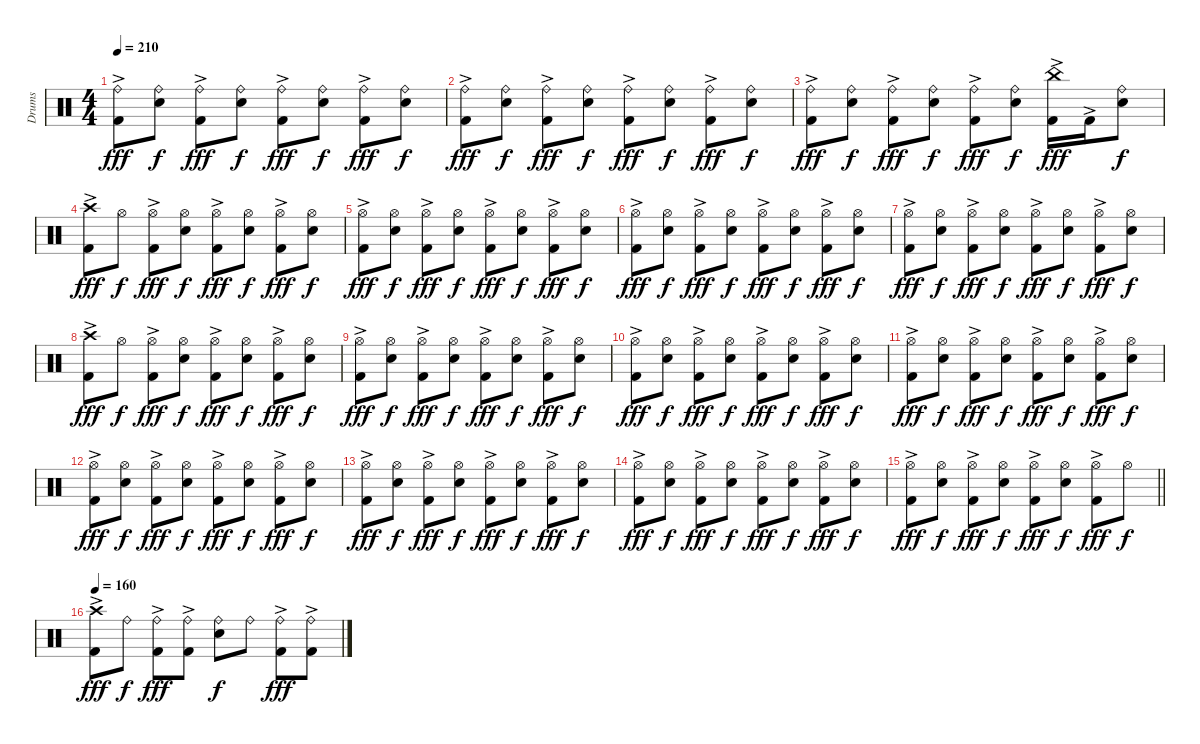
\track ("Drums" "Drums") {instrument percussion}
\staff {score}
\articulation defaults
\ts (4 4)
\tempo 210
\clef neutral
\ks c
("Ride (bell)" "Kick (hit) 2"{ac}).8{dy fff} ("Ride (bell)" "Snare (hit) 2").8{dy f} ("Ride (bell)" "Kick (hit) 2"{ac}).8{dy fff} ("Ride (bell)" "Snare (hit) 2").8{dy f} ("Ride (bell)" "Kick (hit) 2"{ac}).8{dy fff} ("Ride (bell)" "Snare (hit) 2").8{dy f} ("Ride (bell)" "Kick (hit) 2"{ac}).8{dy fff} ("Ride (bell)" "Snare (hit) 2").8{dy f} |
("Ride (bell)" "Kick (hit) 2"{ac}).8{dy fff} ("Ride (bell)" "Snare (hit) 2").8{dy f} ("Ride (bell)" "Kick (hit) 2"{ac}).8{dy fff} ("Ride (bell)" "Snare (hit) 2").8{dy f} ("Ride (bell)" "Kick (hit) 2"{ac}).8{dy fff} ("Ride (bell)" "Snare (hit) 2").8{dy f} ("Ride (bell)" "Kick (hit) 2"{ac}).8{dy fff} ("Ride (bell)" "Snare (hit) 2").8{dy f} |
("Ride (bell)" "Kick (hit) 2"{ac}).8{dy fff} ("Ride (bell)" "Snare (hit) 2").8{dy f} ("Ride (bell)" "Kick (hit) 2"{ac}).8{dy fff} ("Ride (bell)" "Snare (hit) 2").8{dy f} ("Ride (bell)" "Kick (hit) 2"{ac}).8{dy fff} ("Ride (bell)" "Snare (hit) 2").8{dy f} ("China (hit)"{ac} "Kick (hit) 2"{ac}).16{dy fff} "Kick (hit) 2"{ac}.16 ("Ride (bell)" "Snare (hit) 2").8{dy f} |
("Crash high (hit)"{ac} "Kick (hit) 2"{ac}).8{dy fff} "Hi-Hat (open)".8{dy f} ("Hi-Hat (open)" "Kick (hit) 2"{ac}).8{dy fff} ("Hi-Hat (open)" "Snare (hit) 2").8{dy f} ("Hi-Hat (open)" "Kick (hit) 2"{ac}).8{dy fff} ("Hi-Hat (open)" "Snare (hit) 2").8{dy f} ("Hi-Hat (open)" "Kick (hit) 2"{ac}).8{dy fff} ("Hi-Hat (open)" "Snare (hit) 2").8{dy f} |
("Hi-Hat (open)" "Kick (hit) 2"{ac}).8{dy fff} ("Hi-Hat (open)" "Snare (hit) 2").8{dy f} ("Hi-Hat (open)" "Kick (hit) 2"{ac}).8{dy fff} ("Hi-Hat (open)" "Snare (hit) 2").8{dy f} ("Hi-Hat (open)" "Kick (hit) 2"{ac}).8{dy fff} ("Hi-Hat (open)" "Snare (hit) 2").8{dy f} ("Hi-Hat (open)" "Kick (hit) 2"{ac}).8{dy fff} ("Hi-Hat (open)" "Snare (hit) 2").8{dy f} |
("Hi-Hat (open)" "Kick (hit) 2"{ac}).8{dy fff} ("Hi-Hat (open)" "Snare (hit) 2").8{dy f} ("Hi-Hat (open)" "Kick (hit) 2"{ac}).8{dy fff} ("Hi-Hat (open)" "Snare (hit) 2").8{dy f} ("Hi-Hat (open)" "Kick (hit) 2"{ac}).8{dy fff} ("Hi-Hat (open)" "Snare (hit) 2").8{dy f} ("Hi-Hat (open)" "Kick (hit) 2"{ac}).8{dy fff} ("Hi-Hat (open)" "Snare (hit) 2").8{dy f} |
("Hi-Hat (open)" "Kick (hit) 2"{ac}).8{dy fff} ("Hi-Hat (open)" "Snare (hit) 2").8{dy f} ("Hi-Hat (open)" "Kick (hit) 2"{ac}).8{dy fff} ("Hi-Hat (open)" "Snare (hit) 2").8{dy f} ("Hi-Hat (open)" "Kick (hit) 2"{ac}).8{dy fff} ("Hi-Hat (open)" "Snare (hit) 2").8{dy f} ("Hi-Hat (open)" "Kick (hit) 2"{ac}).8{dy fff} ("Hi-Hat (open)" "Snare (hit) 2").8{dy f} |
("Crash high (hit)" "Kick (hit) 2"{ac}).8{dy fff} "Hi-Hat (open)".8{dy f} ("Hi-Hat (open)" "Kick (hit) 2"{ac}).8{dy fff} ("Hi-Hat (open)" "Snare (hit) 2").8{dy f} ("Hi-Hat (open)" "Kick (hit) 2"{ac}).8{dy fff} ("Hi-Hat (open)" "Snare (hit) 2").8{dy f} ("Hi-Hat (open)" "Kick (hit) 2"{ac}).8{dy fff} ("Hi-Hat (open)" "Snare (hit) 2").8{dy f} |
("Hi-Hat (open)" "Kick (hit) 2"{ac}).8{dy fff} ("Hi-Hat (open)" "Snare (hit) 2").8{dy f} ("Hi-Hat (open)" "Kick (hit) 2"{ac}).8{dy fff} ("Hi-Hat (open)" "Snare (hit) 2").8{dy f} ("Hi-Hat (open)" "Kick (hit) 2"{ac}).8{dy fff} ("Hi-Hat (open)" "Snare (hit) 2").8{dy f} ("Hi-Hat (open)" "Kick (hit) 2"{ac}).8{dy fff} ("Hi-Hat (open)" "Snare (hit) 2").8{dy f} |
("Hi-Hat (open)" "Kick (hit) 2"{ac}).8{dy fff} ("Hi-Hat (open)" "Snare (hit) 2").8{dy f} ("Hi-Hat (open)" "Kick (hit) 2"{ac}).8{dy fff} ("Hi-Hat (open)" "Snare (hit) 2").8{dy f} ("Hi-Hat (open)" "Kick (hit) 2"{ac}).8{dy fff} ("Hi-Hat (open)" "Snare (hit) 2").8{dy f} ("Hi-Hat (open)" "Kick (hit) 2"{ac}).8{dy fff} ("Hi-Hat (open)" "Snare (hit) 2").8{dy f} |
("Hi-Hat (open)" "Kick (hit) 2"{ac}).8{dy fff} ("Hi-Hat (open)" "Snare (hit) 2").8{dy f} ("Hi-Hat (open)" "Kick (hit) 2"{ac}).8{dy fff} ("Hi-Hat (open)" "Snare (hit) 2").8{dy f} ("Hi-Hat (open)" "Kick (hit) 2"{ac}).8{dy fff} ("Hi-Hat (open)" "Snare (hit) 2").8{dy f} ("Hi-Hat (open)" "Kick (hit) 2"{ac}).8{dy fff} ("Hi-Hat (open)" "Snare (hit) 2").8{dy f} |
("Hi-Hat (open)" "Kick (hit) 2"{ac}).8{dy fff} ("Hi-Hat (open)" "Snare (hit) 2").8{dy f} ("Hi-Hat (open)" "Kick (hit) 2"{ac}).8{dy fff} ("Hi-Hat (open)" "Snare (hit) 2").8{dy f} ("Hi-Hat (open)" "Kick (hit) 2"{ac}).8{dy fff} ("Hi-Hat (open)" "Snare (hit) 2").8{dy f} ("Hi-Hat (open)" "Kick (hit) 2"{ac}).8{dy fff} ("Hi-Hat (open)" "Snare (hit) 2").8{dy f} |
("Hi-Hat (open)" "Kick (hit) 2"{ac}).8{dy fff} ("Hi-Hat (open)" "Snare (hit) 2").8{dy f} ("Hi-Hat (open)" "Kick (hit) 2"{ac}).8{dy fff} ("Hi-Hat (open)" "Snare (hit) 2").8{dy f} ("Hi-Hat (open)" "Kick (hit) 2"{ac}).8{dy fff} ("Hi-Hat (open)" "Snare (hit) 2").8{dy f} ("Hi-Hat (open)" "Kick (hit) 2"{ac}).8{dy fff} ("Hi-Hat (open)" "Snare (hit) 2").8{dy f} |
("Hi-Hat (open)" "Kick (hit) 2"{ac}).8{dy fff} ("Hi-Hat (open)" "Snare (hit) 2").8{dy f} ("Hi-Hat (open)" "Kick (hit) 2"{ac}).8{dy fff} ("Hi-Hat (open)" "Snare (hit) 2").8{dy f} ("Hi-Hat (open)" "Kick (hit) 2"{ac}).8{dy fff} ("Hi-Hat (open)" "Snare (hit) 2").8{dy f} ("Hi-Hat (open)" "Kick (hit) 2"{ac}).8{dy fff} ("Hi-Hat (open)" "Snare (hit) 2").8{dy f} |
\barLineRight lightlight
("Hi-Hat (open)" "Kick (hit) 2"{ac}).8{dy fff} ("Hi-Hat (open)" "Snare (hit) 2").8{dy f} ("Hi-Hat (open)" "Kick (hit) 2"{ac}).8{dy fff} ("Hi-Hat (open)" "Snare (hit) 2").8{dy f} ("Hi-Hat (open)" "Kick (hit) 2"{ac}).8{dy fff} ("Hi-Hat (open)" "Snare (hit) 2").8{dy f} ("Hi-Hat (open)" "Kick (hit) 2"{ac}).8{dy fff} "Hi-Hat (open)".8{dy f} |
\tempo 160
("Crash high (hit)" "Kick (hit) 2"{ac}).8{dy fff} "Ride (bell)".8{dy f} ("Ride (bell)" "Kick (hit) 2"{ac}).8{dy fff} ("Ride (bell)" "Kick (hit) 2"{ac}).8 ("Ride (bell)" "Snare (hit) 2").8{dy f} "Ride (bell)".8 ("Ride (bell)" "Kick (hit) 2"{ac}).8{dy fff} ("Ride (bell)" "Kick (hit) 2"{ac}).8
